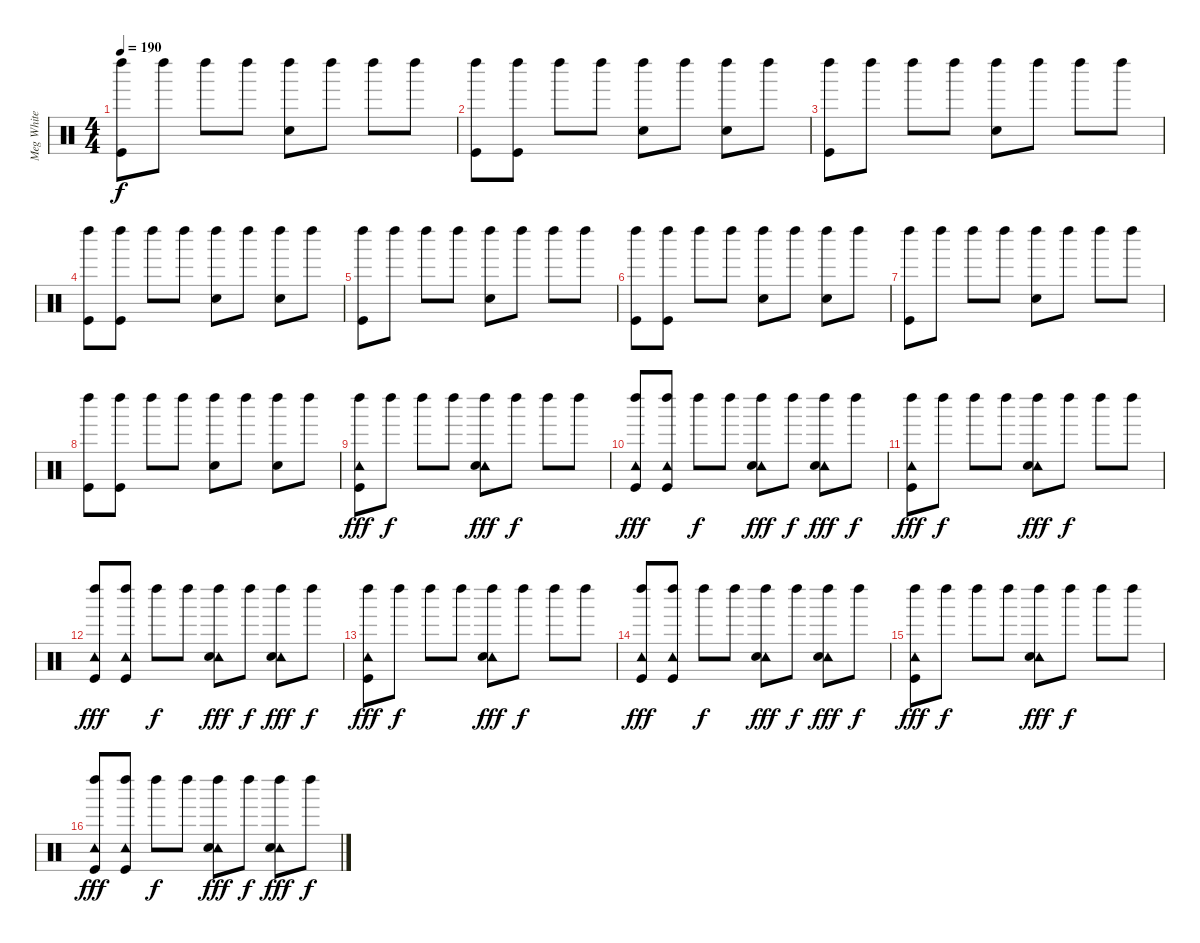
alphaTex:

\track ("Meg White" "Meg White") {instrument percussion}
\staff {score}
\articulation defaults
\ts (4 4)
\tempo 190
\clef neutral
\ks c
("Kick (hit)" "Left Maraca (hit)").8{dy f} "Left Maraca (hit)".8 "Left Maraca (hit)".8 "Left Maraca (hit)".8 ("Snare (hit) 2" "Left Maraca (hit)").8 "Left Maraca (hit)".8 "Left Maraca (hit)".8 "Left Maraca (hit)".8 |
("Kick (hit)" "Left Maraca (hit)").8 ("Kick (hit)" "Left Maraca (hit)").8 "Left Maraca (hit)".8 "Left Maraca (hit)".8 ("Snare (hit) 2" "Left Maraca (hit)").8 "Left Maraca (hit)".8 ("Snare (hit) 2" "Left Maraca (hit)").8 "Left Maraca (hit)".8 |
("Kick (hit)" "Left Maraca (hit)").8 "Left Maraca (hit)".8 "Left Maraca (hit)".8 "Left Maraca (hit)".8 ("Snare (hit) 2" "Left Maraca (hit)").8 "Left Maraca (hit)".8 "Left Maraca (hit)".8 "Left Maraca (hit)".8 |
("Kick (hit)" "Left Maraca (hit)").8 ("Kick (hit)" "Left Maraca (hit)").8 "Left Maraca (hit)".8 "Left Maraca (hit)".8 ("Snare (hit) 2" "Left Maraca (hit)").8 "Left Maraca (hit)".8 ("Snare (hit) 2" "Left Maraca (hit)").8 "Left Maraca (hit)".8 |
("Kick (hit)" "Left Maraca (hit)").8 "Left Maraca (hit)".8 "Left Maraca (hit)".8 "Left Maraca (hit)".8 ("Snare (hit) 2" "Left Maraca (hit)").8 "Left Maraca (hit)".8 "Left Maraca (hit)".8 "Left Maraca (hit)".8 |
("Kick (hit)" "Left Maraca (hit)").8 ("Kick (hit)" "Left Maraca (hit)").8 "Left Maraca (hit)".8 "Left Maraca (hit)".8 ("Snare (hit) 2" "Left Maraca (hit)").8 "Left Maraca (hit)".8 ("Snare (hit) 2" "Left Maraca (hit)").8 "Left Maraca (hit)".8 |
("Kick (hit)" "Left Maraca (hit)").8 "Left Maraca (hit)".8 "Left Maraca (hit)".8 "Left Maraca (hit)".8 ("Snare (hit) 2" "Left Maraca (hit)").8 "Left Maraca (hit)".8 "Left Maraca (hit)".8 "Left Maraca (hit)".8 |
("Kick (hit)" "Left Maraca (hit)").8 ("Kick (hit)" "Left Maraca (hit)").8 "Left Maraca (hit)".8 "Left Maraca (hit)".8 ("Snare (hit) 2" "Left Maraca (hit)").8 "Left Maraca (hit)".8 ("Snare (hit) 2" "Left Maraca (hit)").8 "Left Maraca (hit)".8 |
("Tambourine (hit)" "Kick (hit)" "Left Maraca (hit)").8{dy fff} "Left Maraca (hit)".8{dy f} "Left Maraca (hit)".8 "Left Maraca (hit)".8 ("Tambourine (hit)" "Snare (hit) 2" "Left Maraca (hit)").8{dy fff} "Left Maraca (hit)".8{dy f} "Left Maraca (hit)".8 "Left Maraca (hit)".8 |
("Tambourine (hit)" "Kick (hit)" "Left Maraca (hit)").8{dy fff} ("Tambourine (hit)" "Kick (hit)" "Left Maraca (hit)").8 "Left Maraca (hit)".8{dy f} "Left Maraca (hit)".8 ("Tambourine (hit)" "Snare (hit) 2" "Left Maraca (hit)").8{dy fff} "Left Maraca (hit)".8{dy f} ("Tambourine (hit)" "Snare (hit) 2" "Left Maraca (hit)").8{dy fff} "Left Maraca (hit)".8{dy f} |
("Tambourine (hit)" "Kick (hit)" "Left Maraca (hit)").8{dy fff} "Left Maraca (hit)".8{dy f} "Left Maraca (hit)".8 "Left Maraca (hit)".8 ("Tambourine (hit)" "Snare (hit) 2" "Left Maraca (hit)").8{dy fff} "Left Maraca (hit)".8{dy f} "Left Maraca (hit)".8 "Left Maraca (hit)".8 |
("Tambourine (hit)" "Kick (hit)" "Left Maraca (hit)").8{dy fff} ("Tambourine (hit)" "Kick (hit)" "Left Maraca (hit)").8 "Left Maraca (hit)".8{dy f} "Left Maraca (hit)".8 ("Tambourine (hit)" "Snare (hit) 2" "Left Maraca (hit)").8{dy fff} "Left Maraca (hit)".8{dy f} ("Tambourine (hit)" "Snare (hit) 2" "Left Maraca (hit)").8{dy fff} "Left Maraca (hit)".8{dy f} |
("Tambourine (hit)" "Kick (hit)" "Left Maraca (hit)").8{dy fff} "Left Maraca (hit)".8{dy f} "Left Maraca (hit)".8 "Left Maraca (hit)".8 ("Tambourine (hit)" "Snare (hit) 2" "Left Maraca (hit)").8{dy fff} "Left Maraca (hit)".8{dy f} "Left Maraca (hit)".8 "Left Maraca (hit)".8 |
("Tambourine (hit)" "Kick (hit)" "Left Maraca (hit)").8{dy fff} ("Tambourine (hit)" "Kick (hit)" "Left Maraca (hit)").8 "Left Maraca (hit)".8{dy f} "Left Maraca (hit)".8 ("Tambourine (hit)" "Snare (hit) 2" "Left Maraca (hit)").8{dy fff} "Left Maraca (hit)".8{dy f} ("Tambourine (hit)" "Snare (hit) 2" "Left Maraca (hit)").8{dy fff} "Left Maraca (hit)".8{dy f} |
("Tambourine (hit)" "Kick (hit)" "Left Maraca (hit)").8{dy fff} "Left Maraca (hit)".8{dy f} "Left Maraca (hit)".8 "Left Maraca (hit)".8 ("Tambourine (hit)" "Snare (hit) 2" "Left Maraca (hit)").8{dy fff} "Left Maraca (hit)".8{dy f} "Left Maraca (hit)".8 "Left Maraca (hit)".8 |
("Tambourine (hit)" "Kick (hit)" "Left Maraca (hit)").8{dy fff} ("Tambourine (hit)" "Kick (hit)" "Left Maraca (hit)").8 "Left Maraca (hit)".8{dy f} "Left Maraca (hit)".8 ("Tambourine (hit)" "Snare (hit) 2" "Left Maraca (hit)").8{dy fff} "Left Maraca (hit)".8{dy f} ("Tambourine (hit)" "Snare (hit) 2" "Left Maraca (hit)").8{dy fff} "Left Maraca (hit)".8{dy f}
